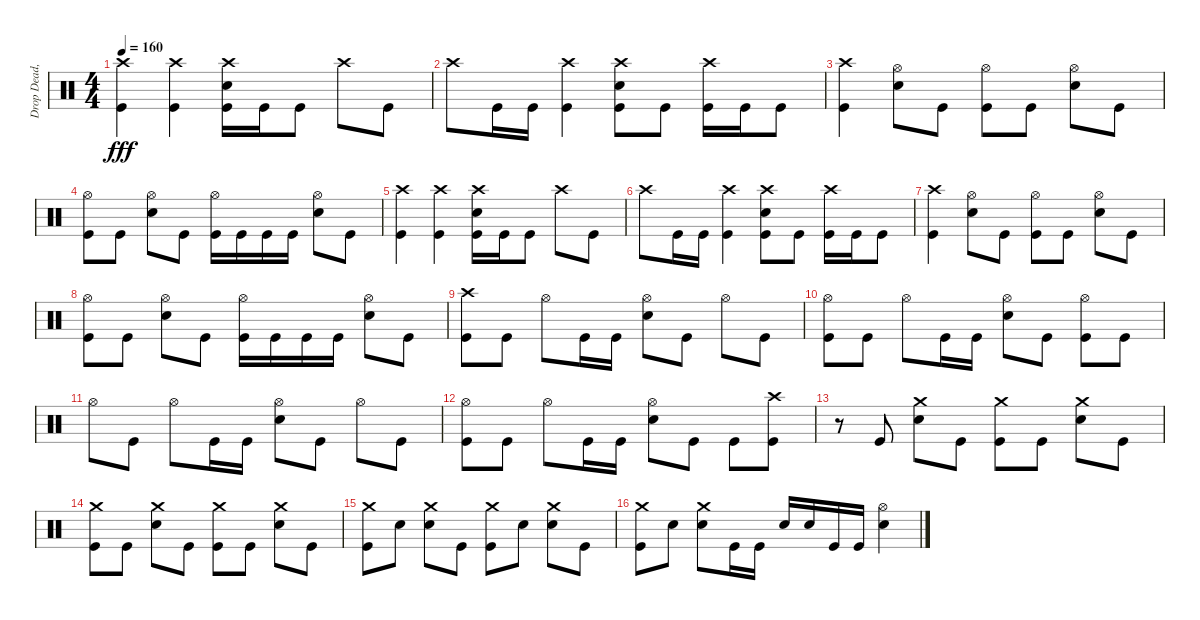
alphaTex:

\track ("Drop Dead, Johnny" "Drop Dead,") {instrument percussion}
\staff {score}
\articulation defaults
\ts (4 4)
\tempo 160
\clef neutral
\ks c
("Crash high (hit)" "Kick (hit)").4{dy fff} ("Crash high (hit)" "Kick (hit)").4 ("Crash high (hit)" "Electric Snare (hit)" "Kick (hit)").16 "Kick (hit)".16 "Kick (hit)".8 "Crash high (hit)".8 "Kick (hit)".8 |
"Crash high (hit)".8 "Kick (hit)".16 "Kick (hit)".16 ("Crash high (hit)" "Kick (hit)").4 ("Crash high (hit)" "Electric Snare (hit)" "Kick (hit)").8 "Kick (hit)".8 ("Crash high (hit)" "Kick (hit)").16 "Kick (hit)".16 "Kick (hit)".8 |
("Crash high (hit)" "Kick (hit)").4 ("Hi-Hat (open)" "Electric Snare (hit)").8 "Kick (hit)".8 ("Hi-Hat (open)" "Kick (hit)").8 "Kick (hit)".8 ("Hi-Hat (open)" "Electric Snare (hit)").8 "Kick (hit)".8 |
("Hi-Hat (open)" "Kick (hit)").8 "Kick (hit)".8 ("Hi-Hat (open)" "Electric Snare (hit)").8 "Kick (hit)".8 ("Hi-Hat (open)" "Kick (hit)").16 "Kick (hit)".16 "Kick (hit)".16 "Kick (hit)".16 ("Hi-Hat (open)" "Electric Snare (hit)").8 "Kick (hit)".8 |
("Crash high (hit)" "Kick (hit)").4 ("Crash high (hit)" "Kick (hit)").4 ("Crash high (hit)" "Electric Snare (hit)" "Kick (hit)").16 "Kick (hit)".16 "Kick (hit)".8 "Crash high (hit)".8 "Kick (hit)".8 |
"Crash high (hit)".8 "Kick (hit)".16 "Kick (hit)".16 ("Crash high (hit)" "Kick (hit)").4 ("Crash high (hit)" "Electric Snare (hit)" "Kick (hit)").8 "Kick (hit)".8 ("Crash high (hit)" "Kick (hit)").16 "Kick (hit)".16 "Kick (hit)".8 |
("Crash high (hit)" "Kick (hit)").4 ("Hi-Hat (open)" "Electric Snare (hit)").8 "Kick (hit)".8 ("Hi-Hat (open)" "Kick (hit)").8 "Kick (hit)".8 ("Hi-Hat (open)" "Electric Snare (hit)").8 "Kick (hit)".8 |
("Hi-Hat (open)" "Kick (hit)").8 "Kick (hit)".8 ("Hi-Hat (open)" "Electric Snare (hit)").8 "Kick (hit)".8 ("Hi-Hat (open)" "Kick (hit)").16 "Kick (hit)".16 "Kick (hit)".16 "Kick (hit)".16 ("Hi-Hat (open)" "Electric Snare (hit)").8 "Kick (hit)".8 |
("Crash high (hit)" "Kick (hit)").8 "Kick (hit)".8 "Hi-Hat (open)".8 "Kick (hit)".16 "Kick (hit)".16 ("Hi-Hat (open)" "Electric Snare (hit)").8 "Kick (hit)".8 "Hi-Hat (open)".8 "Kick (hit)".8 |
("Hi-Hat (open)" "Kick (hit)").8 "Kick (hit)".8 "Hi-Hat (open)".8 "Kick (hit)".16 "Kick (hit)".16 ("Hi-Hat (open)" "Electric Snare (hit)").8 "Kick (hit)".8 ("Hi-Hat (open)" "Kick (hit)").8 "Kick (hit)".8 |
"Hi-Hat (open)".8 "Kick (hit)".8 "Hi-Hat (open)".8 "Kick (hit)".16 "Kick (hit)".16 ("Hi-Hat (open)" "Electric Snare (hit)").8 "Kick (hit)".8 "Hi-Hat (open)".8 "Kick (hit)".8 |
("Hi-Hat (open)" "Kick (hit)").8 "Kick (hit)".8 "Hi-Hat (open)".8 "Kick (hit)".16 "Kick (hit)".16 ("Hi-Hat (open)" "Electric Snare (hit)").8 "Kick (hit)".8 "Kick (hit)".8 ("Crash high (hit)" "Kick (hit)").8 |
r.8 "Kick (hit)".8 ("Crash medium (hit)" "Electric Snare (hit)").8 "Kick (hit)".8 ("Crash medium (hit)" "Kick (hit)").8 "Kick (hit)".8 ("Crash medium (hit)" "Electric Snare (hit)").8 "Kick (hit)".8 |
("Crash medium (hit)" "Kick (hit)").8 "Kick (hit)".8 ("Crash medium (hit)" "Electric Snare (hit)").8 "Kick (hit)".8 ("Crash medium (hit)" "Kick (hit)").8 "Kick (hit)".8 ("Crash medium (hit)" "Electric Snare (hit)").8 "Kick (hit)".8 |
("Crash medium (hit)" "Kick (hit)").8 "Electric Snare (hit)".8 ("Crash medium (hit)" "Electric Snare (hit)").8 "Kick (hit)".8 ("Crash medium (hit)" "Kick (hit)").8 "Electric Snare (hit)".8 ("Crash medium (hit)" "Electric Snare (hit)").8 "Kick (hit)".8 |
("Crash medium (hit)" "Kick (hit)").8 "Electric Snare (hit)".8 ("Crash medium (hit)" "Electric Snare (hit)").8 "Kick (hit)".16 "Kick (hit)".16 "Electric Snare (hit)".16 "Electric Snare (hit)".16 "Kick (hit)".16 "Kick (hit)".16 ("Hi-Hat (open)" "Electric Snare (hit)").4
